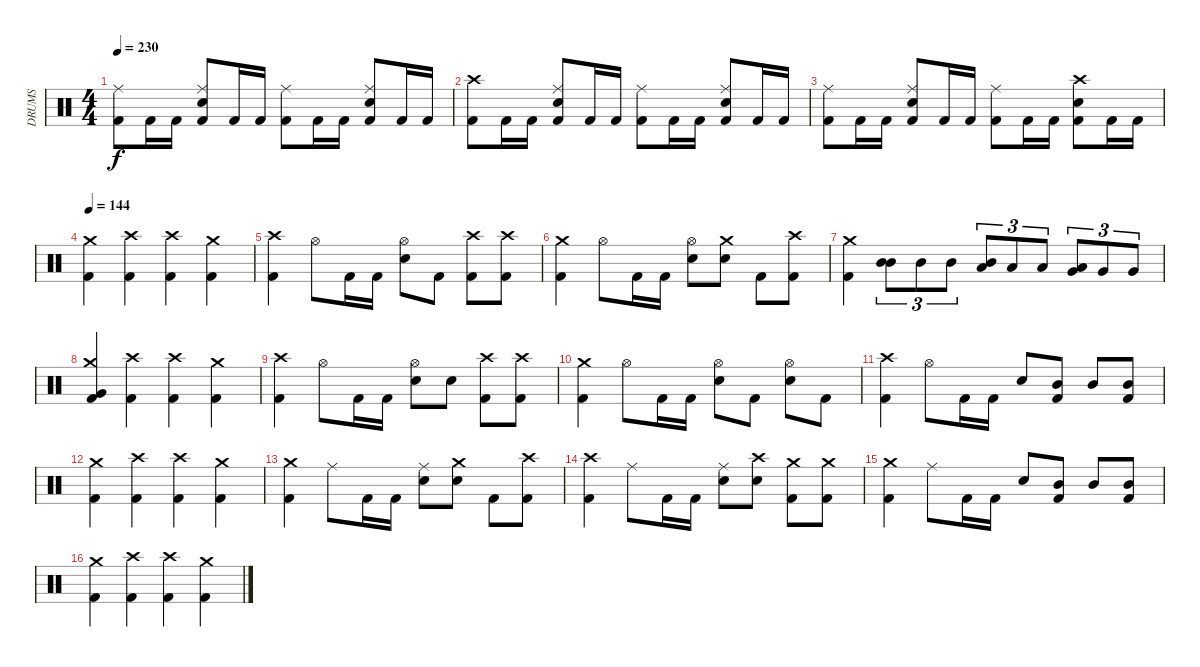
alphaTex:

\track ("DRUMS" "DRUMS") {instrument percussion}
\staff {score}
\articulation defaults
\ts (4 4)
\tempo 230
\clef neutral
\ks c
("Kick (hit) 2" "Ride (middle)").8{dy f} "Kick (hit) 2".16 "Kick (hit) 2".16 ("Kick (hit) 2" "Snare (hit) 2" "Ride (middle)").8 "Kick (hit) 2".16 "Kick (hit) 2".16 ("Kick (hit) 2" "Ride (middle)").8 "Kick (hit) 2".16 "Kick (hit) 2".16 ("Kick (hit) 2" "Snare (hit) 2" "Ride (middle)").8 "Kick (hit) 2".16 "Kick (hit) 2".16 |
("Kick (hit) 2" "Crash high (hit)").8 "Kick (hit) 2".16 "Kick (hit) 2".16 ("Kick (hit) 2" "Snare (hit) 2" "Ride (middle)").8 "Kick (hit) 2".16 "Kick (hit) 2".16 ("Kick (hit) 2" "Ride (middle)").8 "Kick (hit) 2".16 "Kick (hit) 2".16 ("Kick (hit) 2" "Snare (hit) 2" "Ride (middle)").8 "Kick (hit) 2".16 "Kick (hit) 2".16 |
("Kick (hit) 2" "Ride (middle)").8 "Kick (hit) 2".16 "Kick (hit) 2".16 ("Kick (hit) 2" "Snare (hit) 2" "Ride (middle)").8 "Kick (hit) 2".16 "Kick (hit) 2".16 ("Kick (hit) 2" "Ride (middle)").8 "Kick (hit) 2".16 "Kick (hit) 2".16 ("Kick (hit) 2" "Snare (hit) 2" "Crash high (hit)").8 "Kick (hit) 2".16 "Kick (hit) 2".16 |
\tempo 144
("Kick (hit) 2" "Crash medium (hit)").4 ("Kick (hit) 2" "Crash high (hit)").4 ("Kick (hit) 2" "Crash high (hit)").4 ("Kick (hit) 2" "Crash medium (hit)").4 |
("Kick (hit) 2" "Crash high (hit)").4 "Hi-Hat (open)".8 "Kick (hit) 2".16 "Kick (hit) 2".16 ("Snare (hit) 2" "Hi-Hat (open)").8 "Kick (hit) 2".8 ("Kick (hit) 2" "Crash high (hit)").8 ("Kick (hit) 2" "Crash high (hit)").8 |
("Kick (hit) 2" "Crash medium (hit)").4 "Hi-Hat (open)".8 "Kick (hit) 2".16 "Kick (hit) 2".16 ("Snare (hit) 2" "Hi-Hat (open)").8 ("Snare (hit) 2" "Crash medium (hit)").8 "Kick (hit) 2".8 ("Kick (hit) 2" "Crash high (hit)").8 |
("Kick (hit) 2" "Crash medium (hit)").4 ("Mid Tom (hit)" "Mid Tom (hit)").8{tu (3 2)} "Mid Tom (hit)".8{tu (3 2)} "Mid Tom (hit)".8{tu (3 2)} ("Low Tom (hit)" "Mid Tom (hit)").8{tu (3 2)} "Low Tom (hit)".8{tu (3 2)} "Low Tom (hit)".8{tu (3 2)} ("Very Low Tom (hit)" "Low Tom (hit)").8{tu (3 2)} "Very Low Tom (hit)".8{tu (3 2)} "Very Low Tom (hit)".8{tu (3 2)} |
("Kick (hit) 2" "Very Low Tom (hit)" "Crash medium (hit)").4 ("Kick (hit) 2" "Crash high (hit)").4 ("Kick (hit) 2" "Crash high (hit)").4 ("Kick (hit) 2" "Crash medium (hit)").4 |
("Kick (hit) 2" "Crash high (hit)").4 "Hi-Hat (open)".8 "Kick (hit) 2".16 "Kick (hit) 2".16 ("Snare (hit) 2" "Hi-Hat (open)").8 "Snare (hit) 2".8 ("Kick (hit) 2" "Crash high (hit)").8 ("Kick (hit) 2" "Crash high (hit)").8 |
("Kick (hit) 2" "Crash medium (hit)").4 "Hi-Hat (open)".8 "Kick (hit) 2".16 "Kick (hit) 2".16 ("Snare (hit) 2" "Hi-Hat (open)").8 "Kick (hit) 2".8 ("Snare (hit) 2" "Hi-Hat (open)").8 "Kick (hit) 2".8 |
("Kick (hit) 2" "Crash high (hit)").4 "Hi-Hat (open)".8 "Kick (hit) 2".16 "Kick (hit) 2".16 "Snare (hit) 2".8 ("Kick (hit) 2" "Mid Tom (hit)").8 "Mid Tom (hit)".8 ("Kick (hit) 2" "Mid Tom (hit)").8 |
("Kick (hit) 2" "Crash medium (hit)").4 ("Kick (hit) 2" "Crash high (hit)").4 ("Kick (hit) 2" "Crash high (hit)").4 ("Kick (hit) 2" "Crash medium (hit)").4 |
("Kick (hit) 2" "Crash medium (hit)").4 "Ride (middle)".8 "Kick (hit) 2".16 "Kick (hit) 2".16 ("Snare (hit) 2" "Ride (middle)").8 ("Snare (hit) 2" "Crash medium (hit)").8 "Kick (hit) 2".8 ("Kick (hit) 2" "Crash high (hit)").8 |
("Kick (hit) 2" "Crash high (hit)").4 "Ride (middle)".8 "Kick (hit) 2".16 "Kick (hit) 2".16 ("Snare (hit) 2" "Ride (middle)").8 ("Snare (hit) 2" "Crash high (hit)").8 ("Kick (hit) 2" "Crash medium (hit)").8 ("Kick (hit) 2" "Crash medium (hit)").8 |
("Kick (hit) 2" "Crash medium (hit)").4 "Ride (middle)".8 "Kick (hit) 2".16 "Kick (hit) 2".16 "Snare (hit) 2".8 ("Kick (hit) 2" "Mid Tom (hit)").8 "Mid Tom (hit)".8 ("Kick (hit) 2" "Mid Tom (hit)").8 |
("Kick (hit) 2" "Crash medium (hit)").4 ("Kick (hit) 2" "Crash high (hit)").4 ("Kick (hit) 2" "Crash high (hit)").4 ("Kick (hit) 2" "Crash medium (hit)").4
